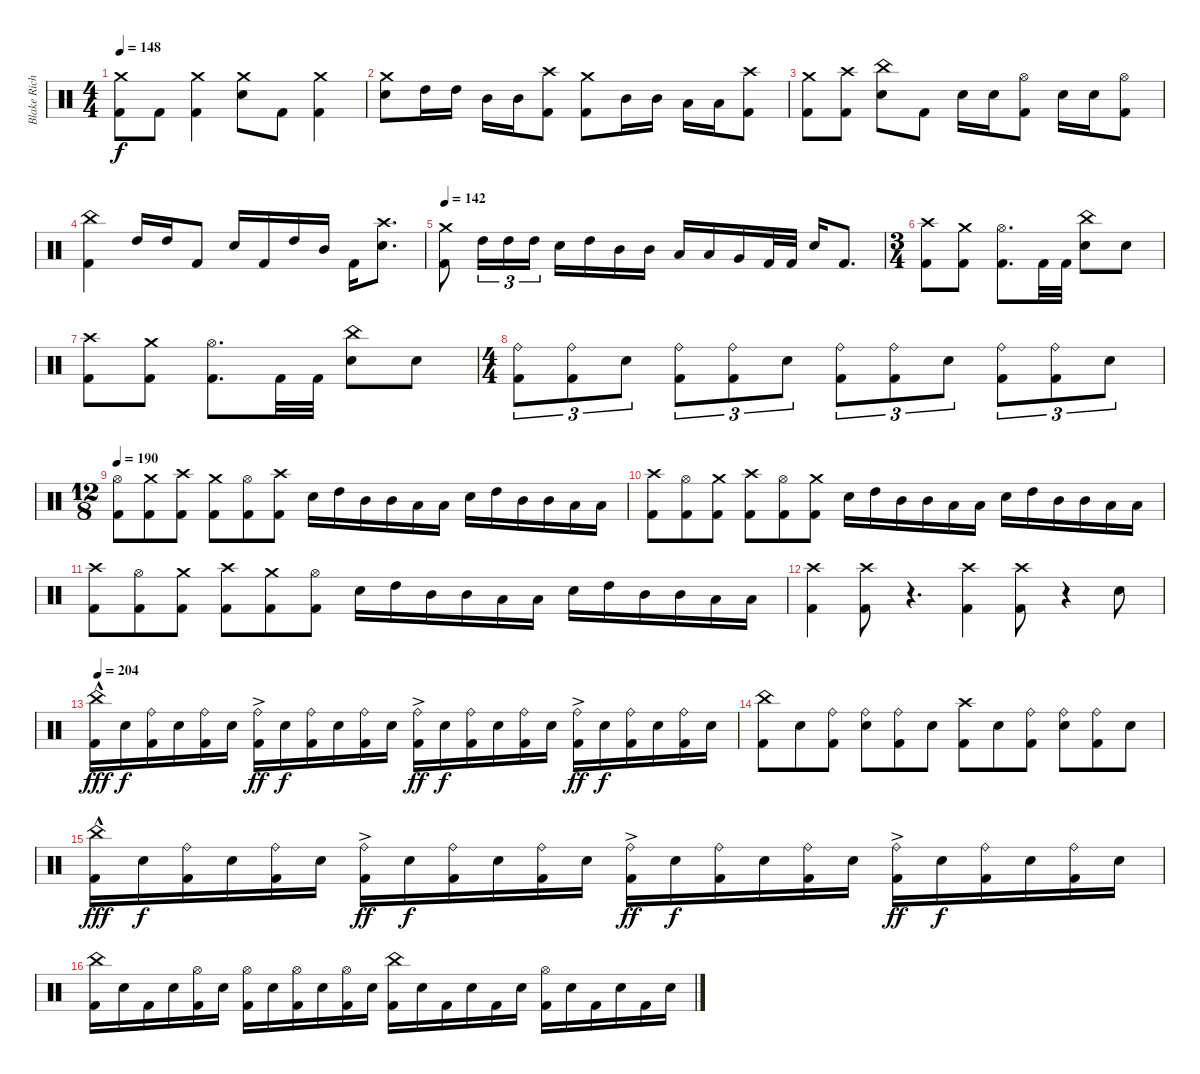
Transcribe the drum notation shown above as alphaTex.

\track ("Blake Richardson" "Blake Rich") {instrument percussion}
\staff {score}
\articulation defaults
\ts (4 4)
\tempo 148
\clef neutral
\ks c
("Crash medium (hit)" "Kick (hit) 2").8{dy f} "Kick (hit) 2".8 ("Crash medium (hit)" "Kick (hit) 2").4 ("Crash medium (hit)" "Electric Snare (hit)").8 "Kick (hit) 2".8 ("Crash medium (hit)" "Kick (hit) 2").4 |
("Crash medium (hit)" "Electric Snare (hit)").8 "High Tom (hit)".16 "High Tom (hit)".16 "Mid Tom (hit)".16 "Mid Tom (hit)".16 ("Crash high (hit)" "Kick (hit) 2").8 ("Crash medium (hit)" "Kick (hit) 2").8 "Mid Tom (hit)".16 "Mid Tom (hit)".16 "Low Tom (hit)".16 "Low Tom (hit)".16 ("Crash high (hit)" "Kick (hit) 2").8 |
("Crash medium (hit)" "Kick (hit) 2").8 ("Crash high (hit)" "Kick (hit) 2").8 ("China (hit)" "Electric Snare (hit)").8 "Kick (hit) 2".8 "Electric Snare (hit)".16 "Electric Snare (hit)".16 ("Hi-Hat (open)" "Kick (hit) 2").8 "Electric Snare (hit)".16 "Electric Snare (hit)".16 ("Hi-Hat (open)" "Kick (hit) 2").8 |
("China (hit)" "Kick (hit) 2").4 "High Tom (hit)".16 "High Tom (hit)".16 "Kick (hit) 2".8 "Electric Snare (hit)".16 "Kick (hit) 2".16 "High Tom (hit)".16 "Mid Tom (hit)".16 "Kick (hit) 2".16 ("Crash high (hit)" "Electric Snare (hit)").8{d} |
\tempo 142
("Crash medium (hit)" "Kick (hit) 2").8 "High Tom (hit)".16{tu (3 2)} "High Tom (hit)".16{tu (3 2)} "High Tom (hit)".16{tu (3 2)} "Electric Snare (hit)".16 "High Tom (hit)".16 "Mid Tom (hit)".16 "Mid Tom (hit)".16 "Low Tom (hit)".16 "Low Tom (hit)".16 "Very Low Tom (hit)".16 "Kick (hit) 2".32 "Kick (hit) 2".32 "Electric Snare (hit)".16 "Kick (hit) 2".8{d} |
\ts (3 4)
("Crash high (hit)" "Kick (hit) 2").8 ("Crash medium (hit)" "Kick (hit) 2").8 ("Hi-Hat (open)" "Kick (hit) 2").8{d} "Kick (hit) 2".32 "Kick (hit) 2".32 ("China (hit)" "Electric Snare (hit)").8 "Electric Snare (hit)".8 |
("Crash high (hit)" "Kick (hit) 2").8 ("Crash medium (hit)" "Kick (hit) 2").8 ("Hi-Hat (open)" "Kick (hit) 2").8{d} "Kick (hit) 2".32 "Kick (hit) 2".32 ("China (hit)" "Electric Snare (hit)").8 "Electric Snare (hit)".8 |
\ts (4 4)
("Ride (bell)" "Kick (hit) 2").8{tu (3 2)} ("Ride (bell)" "Kick (hit) 2").8{tu (3 2)} "Electric Snare (hit)".8{tu (3 2)} ("Ride (bell)" "Kick (hit) 2").8{tu (3 2)} ("Ride (bell)" "Kick (hit) 2").8{tu (3 2)} "Electric Snare (hit)".8{tu (3 2)} ("Ride (bell)" "Kick (hit) 2").8{tu (3 2)} ("Ride (bell)" "Kick (hit) 2").8{tu (3 2)} "Electric Snare (hit)".8{tu (3 2)} ("Ride (bell)" "Kick (hit) 2").8{tu (3 2)} ("Ride (bell)" "Kick (hit) 2").8{tu (3 2)} "Electric Snare (hit)".8{tu (3 2)} |
\ts (12 8)
\tempo 190
("Hi-Hat (open)" "Kick (hit) 2").8 ("Crash medium (hit)" "Kick (hit) 2").8 ("Crash high (hit)" "Kick (hit) 2").8 ("Crash medium (hit)" "Kick (hit) 2").8 ("Hi-Hat (open)" "Kick (hit) 2").8 ("Crash high (hit)" "Kick (hit) 2").8 "Electric Snare (hit)".16 "High Tom (hit)".16 "Mid Tom (hit)".16 "Mid Tom (hit)".16 "Low Tom (hit)".16 "Low Tom (hit)".16 "Electric Snare (hit)".16 "High Tom (hit)".16 "Mid Tom (hit)".16 "Mid Tom (hit)".16 "Low Tom (hit)".16 "Low Tom (hit)".16 |
("Crash high (hit)" "Kick (hit) 2").8 ("Hi-Hat (open)" "Kick (hit) 2").8 ("Crash medium (hit)" "Kick (hit) 2").8 ("Crash high (hit)" "Kick (hit) 2").8 ("Hi-Hat (open)" "Kick (hit) 2").8 ("Crash medium (hit)" "Kick (hit) 2").8 "Electric Snare (hit)".16 "High Tom (hit)".16 "Mid Tom (hit)".16 "Mid Tom (hit)".16 "Low Tom (hit)".16 "Low Tom (hit)".16 "Electric Snare (hit)".16 "High Tom (hit)".16 "Mid Tom (hit)".16 "Mid Tom (hit)".16 "Low Tom (hit)".16 "Low Tom (hit)".16 |
("Crash high (hit)" "Kick (hit) 2").8 ("Hi-Hat (open)" "Kick (hit) 2").8 ("Crash medium (hit)" "Kick (hit) 2").8 ("Crash high (hit)" "Kick (hit) 2").8 ("Crash medium (hit)" "Kick (hit) 2").8 ("Hi-Hat (open)" "Kick (hit) 2").8 "Electric Snare (hit)".16 "High Tom (hit)".16 "Mid Tom (hit)".16 "Mid Tom (hit)".16 "Low Tom (hit)".16 "Low Tom (hit)".16 "Electric Snare (hit)".16 "High Tom (hit)".16 "Mid Tom (hit)".16 "Mid Tom (hit)".16 "Low Tom (hit)".16 "Low Tom (hit)".16 |
("Crash high (hit)" "Kick (hit) 2").4 ("Crash high (hit)" "Kick (hit) 2").8 r.4{d volume 0} ("Crash high (hit)" "Kick (hit) 2").4{volume 13} ("Crash high (hit)" "Kick (hit) 2").8 r.4{volume 0} "Electric Snare (hit)".8{volume 13} |
\tempo 204
("China (hit)"{hac} "Kick (hit) 2").16{dy fff} "Electric Snare (hit)".16{dy f} ("Ride (bell)" "Kick (hit) 2").16 "Electric Snare (hit)".16 ("Ride (bell)" "Kick (hit) 2").16 "Electric Snare (hit)".16 ("Ride (bell)"{ac} "Kick (hit) 2").16{dy ff} "Electric Snare (hit)".16{dy f} ("Ride (bell)" "Kick (hit) 2").16 "Electric Snare (hit)".16 ("Ride (bell)" "Kick (hit) 2").16 "Electric Snare (hit)".16 ("Ride (bell)"{ac} "Kick (hit) 2").16{dy ff} "Electric Snare (hit)".16{dy f} ("Ride (bell)" "Kick (hit) 2").16 "Electric Snare (hit)".16 ("Ride (bell)" "Kick (hit) 2").16 "Electric Snare (hit)".16 ("Ride (bell)"{ac} "Kick (hit) 2").16{dy ff} "Electric Snare (hit)".16{dy f} ("Ride (bell)" "Kick (hit) 2").16 "Electric Snare (hit)".16 ("Ride (bell)" "Kick (hit) 2").16 "Electric Snare (hit)".16 |
("China (hit)" "Kick (hit) 2").8 "Electric Snare (hit)".8 ("Ride (bell)" "Kick (hit) 2").8 ("Ride (bell)" "Electric Snare (hit)").8 ("Ride (bell)" "Kick (hit) 2").8 "Electric Snare (hit)".8 ("Crash high (hit)" "Kick (hit) 2").8 "Electric Snare (hit)".8 ("Ride (bell)" "Kick (hit) 2").8 ("Ride (bell)" "Electric Snare (hit)").8 ("Ride (bell)" "Kick (hit) 2").8 "Electric Snare (hit)".8 |
("China (hit)"{hac} "Kick (hit) 2").16{dy fff} "Electric Snare (hit)".16{dy f} ("Ride (bell)" "Kick (hit) 2").16 "Electric Snare (hit)".16 ("Ride (bell)" "Kick (hit) 2").16 "Electric Snare (hit)".16 ("Ride (bell)"{ac} "Kick (hit) 2").16{dy ff} "Electric Snare (hit)".16{dy f} ("Ride (bell)" "Kick (hit) 2").16 "Electric Snare (hit)".16 ("Ride (bell)" "Kick (hit) 2").16 "Electric Snare (hit)".16 ("Ride (bell)"{ac} "Kick (hit) 2").16{dy ff} "Electric Snare (hit)".16{dy f} ("Ride (bell)" "Kick (hit) 2").16 "Electric Snare (hit)".16 ("Ride (bell)" "Kick (hit) 2").16 "Electric Snare (hit)".16 ("Ride (bell)"{ac} "Kick (hit) 2").16{dy ff} "Electric Snare (hit)".16{dy f} ("Ride (bell)" "Kick (hit) 2").16 "Electric Snare (hit)".16 ("Ride (bell)" "Kick (hit) 2").16 "Electric Snare (hit)".16 |
("China (hit)" "Kick (hit) 2").16 "Electric Snare (hit)".16 "Kick (hit) 2".16 "Electric Snare (hit)".16 ("Hi-Hat (open)" "Kick (hit) 2").16 "Electric Snare (hit)".16 ("Hi-Hat (open)" "Kick (hit) 2").16 "Electric Snare (hit)".16 ("Hi-Hat (open)" "Kick (hit) 2").16 "Electric Snare (hit)".16 ("Hi-Hat (open)" "Kick (hit) 2").16 "Electric Snare (hit)".16 ("China (hit)" "Kick (hit) 2").16 "Electric Snare (hit)".16 "Kick (hit) 2".16 "Electric Snare (hit)".16 "Kick (hit) 2".16 "Electric Snare (hit)".16 ("Hi-Hat (open)" "Kick (hit) 2").16 "Electric Snare (hit)".16 "Kick (hit) 2".16 "Electric Snare (hit)".16 "Kick (hit) 2".16 "Electric Snare (hit)".16
